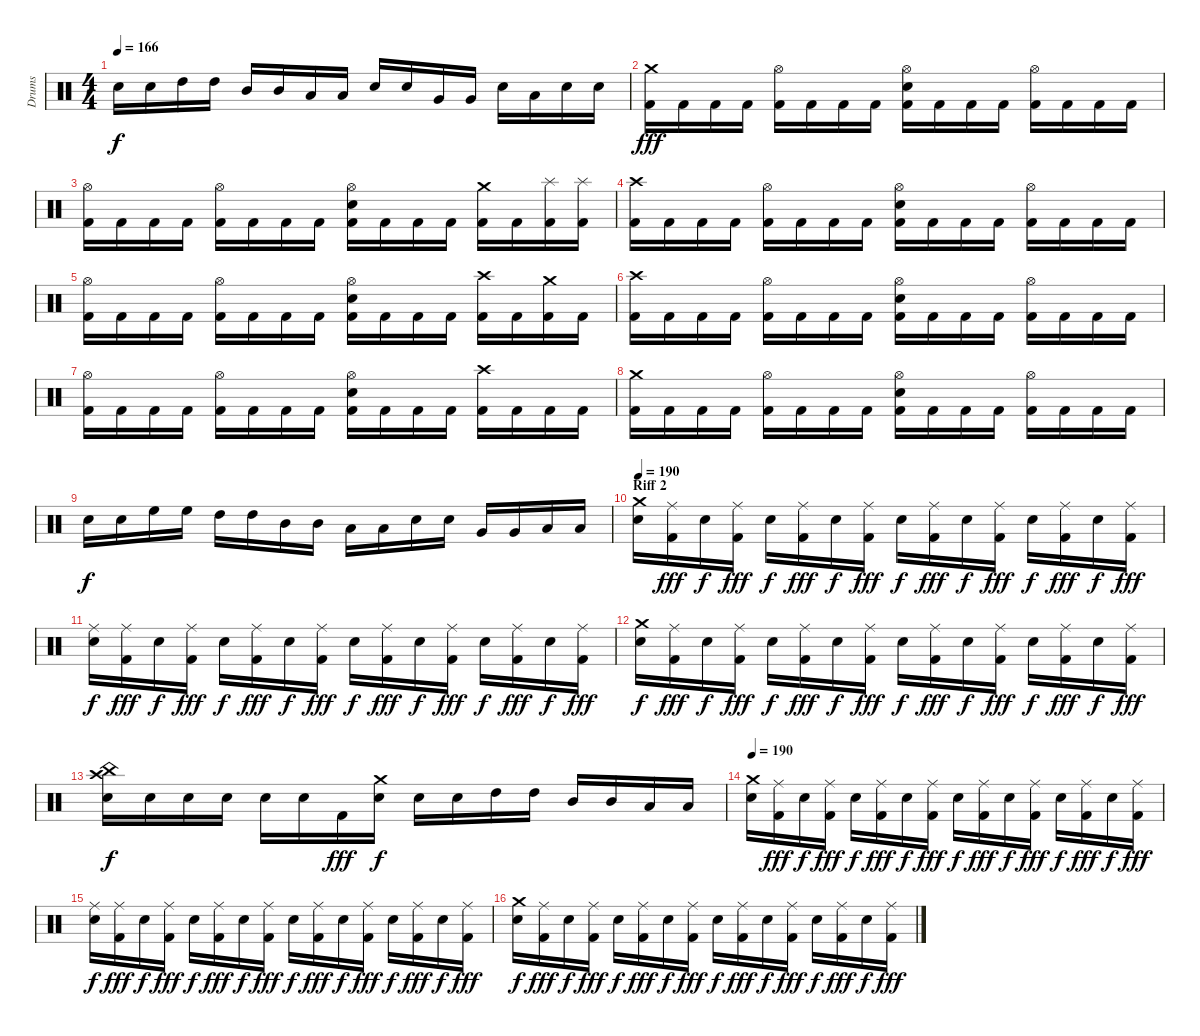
\track ("Drums" "Drums") {instrument percussion}
\staff {score}
\articulation defaults
\ts (4 4)
\tempo 166
\clef neutral
\ks c "Electric Snare (hit)".16{dy f} "Electric Snare (hit)".16 "High Tom (hit)".16 "High Tom (hit)".16 "Mid Tom (hit)".16 "Mid Tom (hit)".16 "Low Tom (hit)".16 "Low Tom (hit)".16 "Electric Snare (hit)".16 "Electric Snare (hit)".16 "Very Low Tom (hit)".16 "Very Low Tom (hit)".16 "Electric Snare (hit)".16 "Low Floor Tom (hit)".16 "Electric Snare (hit)".16 "Electric Snare (hit)".16
|
("Crash medium (hit)" "Kick (hit) 2").16{dy fff} "Kick (hit) 2".16 "Kick (hit) 2".16 "Kick (hit) 2".16 ("Hi-Hat (open)" "Kick (hit) 2").16 "Kick (hit) 2".16 "Kick (hit) 2".16 "Kick (hit) 2".16 ("Hi-Hat (open)" "Electric Snare (hit)" "Kick (hit) 2").16 "Kick (hit) 2".16 "Kick (hit) 2".16 "Kick (hit) 2".16 ("Hi-Hat (open)" "Kick (hit) 2").16 "Kick (hit) 2".16 "Kick (hit) 2".16 "Kick (hit) 2".16 |
("Hi-Hat (open)" "Kick (hit) 2").16 "Kick (hit) 2".16 "Kick (hit) 2".16 "Kick (hit) 2".16 ("Hi-Hat (open)" "Kick (hit) 2").16 "Kick (hit) 2".16 "Kick (hit) 2".16 "Kick (hit) 2".16 ("Hi-Hat (open)" "Electric Snare (hit)" "Kick (hit) 2").16 "Kick (hit) 2".16 "Kick (hit) 2".16 "Kick (hit) 2".16 ("Crash medium (hit)" "Kick (hit) 2").16 "Kick (hit) 2".16 ("Splash (hit)" "Kick (hit) 2").16 ("Splash (hit)" "Kick (hit) 2").16 |
("Crash high (hit)" "Kick (hit) 2").16 "Kick (hit) 2".16 "Kick (hit) 2".16 "Kick (hit) 2".16 ("Hi-Hat (open)" "Kick (hit) 2").16 "Kick (hit) 2".16 "Kick (hit) 2".16 "Kick (hit) 2".16 ("Hi-Hat (open)" "Electric Snare (hit)" "Kick (hit) 2").16 "Kick (hit) 2".16 "Kick (hit) 2".16 "Kick (hit) 2".16 ("Hi-Hat (open)" "Kick (hit) 2").16 "Kick (hit) 2".16 "Kick (hit) 2".16 "Kick (hit) 2".16 |
("Hi-Hat (open)" "Kick (hit) 2").16 "Kick (hit) 2".16 "Kick (hit) 2".16 "Kick (hit) 2".16 ("Hi-Hat (open)" "Kick (hit) 2").16 "Kick (hit) 2".16 "Kick (hit) 2".16 "Kick (hit) 2".16 ("Hi-Hat (open)" "Electric Snare (hit)" "Kick (hit) 2").16 "Kick (hit) 2".16 "Kick (hit) 2".16 "Kick (hit) 2".16 ("Crash high (hit)" "Kick (hit) 2").16 "Kick (hit) 2".16 ("Crash medium (hit)" "Kick (hit) 2").16 "Kick (hit) 2".16 |
("Crash high (hit)" "Kick (hit) 2").16 "Kick (hit) 2".16 "Kick (hit) 2".16 "Kick (hit) 2".16 ("Hi-Hat (open)" "Kick (hit) 2").16 "Kick (hit) 2".16 "Kick (hit) 2".16 "Kick (hit) 2".16 ("Hi-Hat (open)" "Electric Snare (hit)" "Kick (hit) 2").16 "Kick (hit) 2".16 "Kick (hit) 2".16 "Kick (hit) 2".16 ("Hi-Hat (open)" "Kick (hit) 2").16 "Kick (hit) 2".16 "Kick (hit) 2".16 "Kick (hit) 2".16 |
("Hi-Hat (open)" "Kick (hit) 2").16 "Kick (hit) 2".16 "Kick (hit) 2".16 "Kick (hit) 2".16 ("Hi-Hat (open)" "Kick (hit) 2").16 "Kick (hit) 2".16 "Kick (hit) 2".16 "Kick (hit) 2".16 ("Hi-Hat (open)" "Electric Snare (hit)" "Kick (hit) 2").16 "Kick (hit) 2".16 "Kick (hit) 2".16 "Kick (hit) 2".16 ("Crash high (hit)" "Kick (hit) 2").16 "Kick (hit) 2".16 "Kick (hit) 2".16 "Kick (hit) 2".16 |
("Crash medium (hit)" "Kick (hit) 2").16 "Kick (hit) 2".16 "Kick (hit) 2".16 "Kick (hit) 2".16 ("Hi-Hat (open)" "Kick (hit) 2").16 "Kick (hit) 2".16 "Kick (hit) 2".16 "Kick (hit) 2".16 ("Hi-Hat (open)" "Electric Snare (hit)" "Kick (hit) 2").16 "Kick (hit) 2".16 "Kick (hit) 2".16 "Kick (hit) 2".16 ("Hi-Hat (open)" "Kick (hit) 2").16 "Kick (hit) 2".16 "Kick (hit) 2".16 "Kick (hit) 2".16 |
"Electric Snare (hit)".16{dy f} "Electric Snare (hit)".16 "High Floor Tom (hit)".16 "High Floor Tom (hit)".16 "High Tom (hit)".16 "High Tom (hit)".16 "Mid Tom (hit)".16 "Mid Tom (hit)".16 "Low Tom (hit)".16 "Low Tom (hit)".16 "Electric Snare (hit)".16 "Electric Snare (hit)".16 "Very Low Tom (hit)".16 "Very Low Tom (hit)".16 "Low Floor Tom (hit)".16 "Low Floor Tom (hit)".16 |
\section ("" "Riff 2")
\tempo 190
("Crash medium (hit)" "Electric Snare (hit)").16 ("Ride (middle)" "Kick (hit) 2").16{dy fff} "Electric Snare (hit)".16{dy f} ("Ride (middle)" "Kick (hit) 2").16{dy fff} "Electric Snare (hit)".16{dy f} ("Ride (middle)" "Kick (hit) 2").16{dy fff} "Electric Snare (hit)".16{dy f} ("Ride (middle)" "Kick (hit) 2").16{dy fff} "Electric Snare (hit)".16{dy f} ("Ride (middle)" "Kick (hit) 2").16{dy fff} "Electric Snare (hit)".16{dy f} ("Ride (middle)" "Kick (hit) 2").16{dy fff} "Electric Snare (hit)".16{dy f} ("Ride (middle)" "Kick (hit) 2").16{dy fff} "Electric Snare (hit)".16{dy f} ("Ride (middle)" "Kick (hit) 2").16{dy fff} |
("Ride (middle)" "Electric Snare (hit)").16{dy f} ("Ride (middle)" "Kick (hit) 2").16{dy fff} "Electric Snare (hit)".16{dy f} ("Ride (middle)" "Kick (hit) 2").16{dy fff} "Electric Snare (hit)".16{dy f} ("Ride (middle)" "Kick (hit) 2").16{dy fff} "Electric Snare (hit)".16{dy f} ("Ride (middle)" "Kick (hit) 2").16{dy fff} "Electric Snare (hit)".16{dy f} ("Ride (middle)" "Kick (hit) 2").16{dy fff} "Electric Snare (hit)".16{dy f} ("Ride (middle)" "Kick (hit) 2").16{dy fff} "Electric Snare (hit)".16{dy f} ("Ride (middle)" "Kick (hit) 2").16{dy fff} "Electric Snare (hit)".16{dy f} ("Ride (middle)" "Kick (hit) 2").16{dy fff} |
("Crash medium (hit)" "Electric Snare (hit)").16{dy f} ("Ride (middle)" "Kick (hit) 2").16{dy fff} "Electric Snare (hit)".16{dy f} ("Ride (middle)" "Kick (hit) 2").16{dy fff} "Electric Snare (hit)".16{dy f} ("Ride (middle)" "Kick (hit) 2").16{dy fff} "Electric Snare (hit)".16{dy f} ("Ride (middle)" "Kick (hit) 2").16{dy fff} "Electric Snare (hit)".16{dy f} ("Ride (middle)" "Kick (hit) 2").16{dy fff} "Electric Snare (hit)".16{dy f} ("Ride (middle)" "Kick (hit) 2").16{dy fff} "Electric Snare (hit)".16{dy f} ("Ride (middle)" "Kick (hit) 2").16{dy fff} "Electric Snare (hit)".16{dy f} ("Ride (middle)" "Kick (hit) 2").16{dy fff} |
("Crash high (hit)" "China (hit)" "Electric Snare (hit)").16{dy f} "Electric Snare (hit)".16 "Electric Snare (hit)".16 "Electric Snare (hit)".16 "Electric Snare (hit)".16 "Electric Snare (hit)".16 "Kick (hit) 2".16{dy fff} ("Crash medium (hit)" "Electric Snare (hit)").16{dy f} "Electric Snare (hit)".16 "Electric Snare (hit)".16 "High Tom (hit)".16 "High Tom (hit)".16 "Mid Tom (hit)".16 "Mid Tom (hit)".16 "Low Tom (hit)".16 "Low Tom (hit)".16 |
\tempo 190
("Crash medium (hit)" "Electric Snare (hit)").16 ("Ride (middle)" "Kick (hit) 2").16{dy fff} "Electric Snare (hit)".16{dy f} ("Ride (middle)" "Kick (hit) 2").16{dy fff} "Electric Snare (hit)".16{dy f} ("Ride (middle)" "Kick (hit) 2").16{dy fff} "Electric Snare (hit)".16{dy f} ("Ride (middle)" "Kick (hit) 2").16{dy fff} "Electric Snare (hit)".16{dy f} ("Ride (middle)" "Kick (hit) 2").16{dy fff} "Electric Snare (hit)".16{dy f} ("Ride (middle)" "Kick (hit) 2").16{dy fff} "Electric Snare (hit)".16{dy f} ("Ride (middle)" "Kick (hit) 2").16{dy fff} "Electric Snare (hit)".16{dy f} ("Ride (middle)" "Kick (hit) 2").16{dy fff} |
("Ride (middle)" "Electric Snare (hit)").16{dy f} ("Ride (middle)" "Kick (hit) 2").16{dy fff} "Electric Snare (hit)".16{dy f} ("Ride (middle)" "Kick (hit) 2").16{dy fff} "Electric Snare (hit)".16{dy f} ("Ride (middle)" "Kick (hit) 2").16{dy fff} "Electric Snare (hit)".16{dy f} ("Ride (middle)" "Kick (hit) 2").16{dy fff} "Electric Snare (hit)".16{dy f} ("Ride (middle)" "Kick (hit) 2").16{dy fff} "Electric Snare (hit)".16{dy f} ("Ride (middle)" "Kick (hit) 2").16{dy fff} "Electric Snare (hit)".16{dy f} ("Ride (middle)" "Kick (hit) 2").16{dy fff} "Electric Snare (hit)".16{dy f} ("Ride (middle)" "Kick (hit) 2").16{dy fff} |
("Crash medium (hit)" "Electric Snare (hit)").16{dy f} ("Ride (middle)" "Kick (hit) 2").16{dy fff} "Electric Snare (hit)".16{dy f} ("Ride (middle)" "Kick (hit) 2").16{dy fff} "Electric Snare (hit)".16{dy f} ("Ride (middle)" "Kick (hit) 2").16{dy fff} "Electric Snare (hit)".16{dy f} ("Ride (middle)" "Kick (hit) 2").16{dy fff} "Electric Snare (hit)".16{dy f} ("Ride (middle)" "Kick (hit) 2").16{dy fff} "Electric Snare (hit)".16{dy f} ("Ride (middle)" "Kick (hit) 2").16{dy fff} "Electric Snare (hit)".16{dy f} ("Ride (middle)" "Kick (hit) 2").16{dy fff} "Electric Snare (hit)".16{dy f} ("Ride (middle)" "Kick (hit) 2").16{dy fff}
